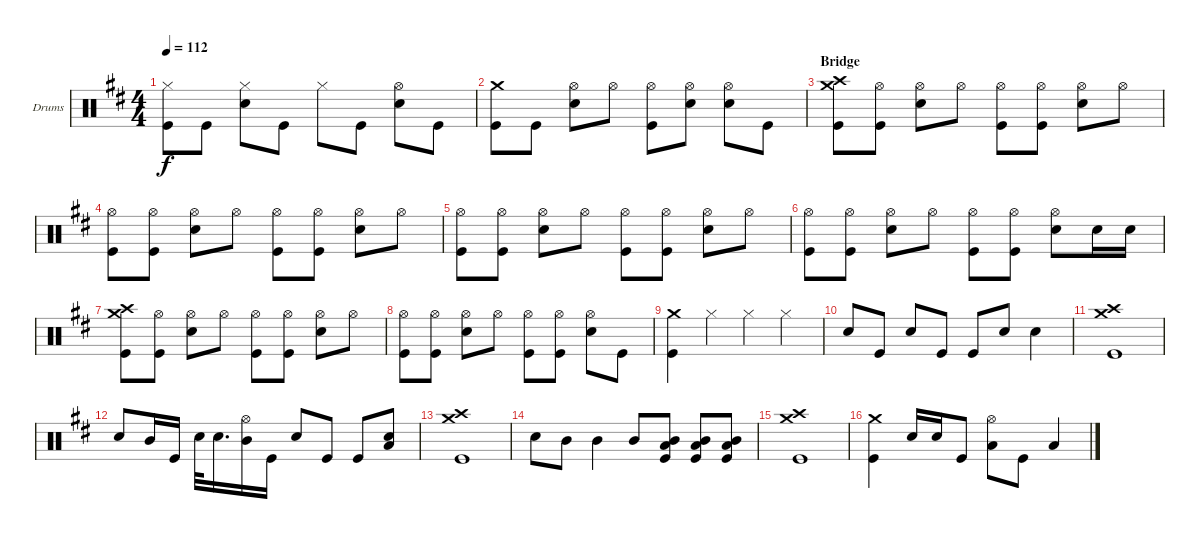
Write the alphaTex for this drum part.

\defaultSystemsLayout 4
\bracketExtendMode groupsimilarinstruments
\firstSystemTrackNameOrientation horizontal
\otherSystemsTrackNameOrientation horizontal
\track ("Drumkit" "Drums") {instrument percussion}
\staff {score}
\articulation defaults
\ts (4 4)
\tempo 112
\clef neutral
\scale
1.05044
\ks d
("Hi-Hat (closed)" "Kick (hit)").8{dy f} "Kick (hit)".8 ("Hi-Hat (closed)" "Snare (hit) 2").8 "Kick (hit)".8 "Hi-Hat (closed)".8 "Kick (hit)".8 ("Hi-Hat (open)" "Snare (hit) 2").8 "Kick (hit)".8 |
\scale
0.949559 ("Crash medium (hit)" "Kick (hit)").8 "Kick (hit)".8 ("Hi-Hat (open)" "Snare (hit) 2").8 "Hi-Hat (open)".8 ("Hi-Hat (open)" "Kick (hit)").8 ("Hi-Hat (open)" "Snare (hit) 2").8 ("Hi-Hat (open)" "Snare (hit) 2").8 "Kick (hit)".8 |
\section ("" "Bridge")
\scale
1.05044 ("Crash medium (hit)" "Crash high (hit)" "Kick (hit)").8 ("Hi-Hat (open)" "Kick (hit)").8 ("Hi-Hat (open)" "Snare (hit) 2").8 "Hi-Hat (open)".8 ("Hi-Hat (open)" "Kick (hit)").8 ("Hi-Hat (open)" "Kick (hit)").8 ("Hi-Hat (open)" "Snare (hit) 2").8 "Hi-Hat (open)".8 |
\scale
0.949559 ("Hi-Hat (open)" "Kick (hit)").8 ("Hi-Hat (open)" "Kick (hit)").8 ("Hi-Hat (open)" "Snare (hit) 2").8 "Hi-Hat (open)".8 ("Hi-Hat (open)" "Kick (hit)").8 ("Hi-Hat (open)" "Kick (hit)").8 ("Hi-Hat (open)" "Snare (hit) 2").8 "Hi-Hat (open)".8 |
\scale
1.05044 ("Hi-Hat (open)" "Kick (hit)").8 ("Hi-Hat (open)" "Kick (hit)").8 ("Hi-Hat (open)" "Snare (hit) 2").8 "Hi-Hat (open)".8 ("Hi-Hat (open)" "Kick (hit)").8 ("Hi-Hat (open)" "Kick (hit)").8 ("Hi-Hat (open)" "Snare (hit) 2").8 "Hi-Hat (open)".8 |
\scale
0.949559 ("Hi-Hat (open)" "Kick (hit)").8 ("Hi-Hat (open)" "Kick (hit)").8 ("Hi-Hat (open)" "Snare (hit) 2").8 "Hi-Hat (open)".8 ("Hi-Hat (open)" "Kick (hit)").8 ("Hi-Hat (open)" "Kick (hit)").8 ("Hi-Hat (open)" "Snare (hit) 2").8 "Snare (hit) 2".16 "Snare (hit) 2".16 |
\scale
1.05044 ("Crash medium (hit)" "Crash high (hit)" "Kick (hit)").8 ("Hi-Hat (open)" "Kick (hit)").8 ("Hi-Hat (open)" "Snare (hit) 2").8 "Hi-Hat (open)".8 ("Hi-Hat (open)" "Kick (hit)").8 ("Hi-Hat (open)" "Kick (hit)").8 ("Hi-Hat (open)" "Snare (hit) 2").8 "Hi-Hat (open)".8 |
\scale
0.949559 ("Hi-Hat (open)" "Kick (hit)").8 ("Hi-Hat (open)" "Kick (hit)").8 ("Hi-Hat (open)" "Snare (hit) 2").8 "Hi-Hat (open)".8 ("Hi-Hat (open)" "Kick (hit)").8 ("Hi-Hat (open)" "Kick (hit)").8 ("Hi-Hat (open)" "Snare (hit) 2").8 "Kick (hit)".8 |
\scale
1.05044 ("Crash medium (hit)" "Kick (hit)").4 "Hi-Hat (closed)".4 "Hi-Hat (closed)".4 "Hi-Hat (closed)".4 |
\scale
0.949559 "Snare (hit) 2".8 "Kick (hit)".8 "Snare (hit) 2".8 "Kick (hit)".8 "Kick (hit)".8 "Snare (hit) 2".8 "Snare (hit) 2".4 |
\scale
1.05044 ("Crash medium (hit)" "Crash high (hit)" "Kick (hit)").1 |
\scale
0.949559 "Snare (hit) 2".8 "Mid Tom (hit)".16 "Kick (hit)".16 "Snare (hit) 2".32 "Snare (hit) 2".16{d} ("Hi-Hat (open)" "Mid Tom (hit)").16 "Kick (hit)".16 "Snare (hit) 2".8 "Kick (hit)".8 "Kick (hit)".8 ("Low Tom (hit)" "Snare (hit) 2").8 |
\scale
1.05044 ("Crash medium (hit)" "Crash high (hit)" "Kick (hit)").1 |
\scale
0.949559 "Snare (hit) 2".8 "Mid Tom (hit)".8 "Mid Tom (hit)".4 "Mid Tom (hit)".8 ("Mid Tom (hit)" "Low Tom (hit)" "Kick (hit)").8 ("Mid Tom (hit)" "Low Tom (hit)" "Kick (hit)").8 ("Mid Tom (hit)" "Low Tom (hit)" "Kick (hit)").8 |
\scale
1.05044 ("Crash medium (hit)" "Crash high (hit)" "Kick (hit)").1 |
\scale
0.949559 ("Crash medium (hit)" "Kick (hit)").4 "Snare (hit) 2".16 "Snare (hit) 2".16 "Kick (hit)".8 ("Hi-Hat (open)" "Low Tom (hit)").8 "Kick (hit)".8 "Low Tom (hit)".4
